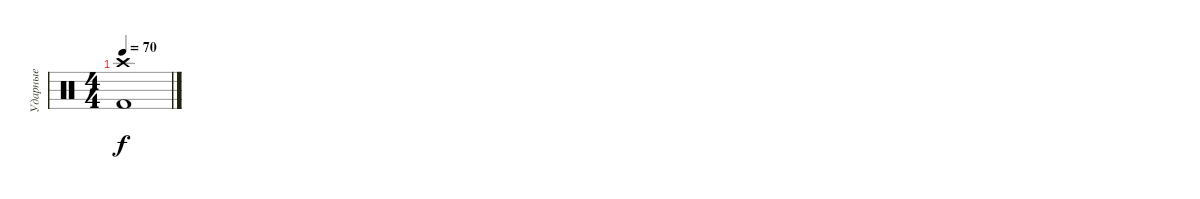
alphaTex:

\track ("Ударные" "Ударные") {instrument percussion}
\staff {score}
\articulation defaults
\ts (4 4)
\tempo 70
\clef neutral
\ks c
("Crash high (hit)" "Kick (hit) 2").1{dy f}
